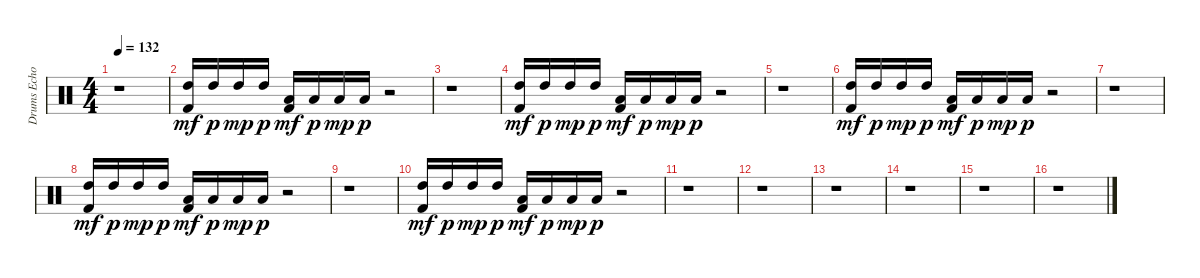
\track ("Drums Echo" "Drums Echo") {instrument percussion}
\staff {score}
\articulation defaults
\ts (4 4)
\tempo 132
\clef neutral
\ks c
r.1{dy mf} |
("High Tom (hit)" "Kick (hit) 2").16 "High Tom (hit)".16{dy p} "High Tom (hit)".16{dy mp} "High Tom (hit)".16{dy p} ("Low Tom (hit)" "Kick (hit) 2").16{dy mf} "Low Tom (hit)".16{dy p} "Low Tom (hit)".16{dy mp} "Low Tom (hit)".16{dy p} r.2 |
r.1 |
("High Tom (hit)" "Kick (hit) 2").16{dy mf} "High Tom (hit)".16{dy p} "High Tom (hit)".16{dy mp} "High Tom (hit)".16{dy p} ("Low Tom (hit)" "Kick (hit) 2").16{dy mf} "Low Tom (hit)".16{dy p} "Low Tom (hit)".16{dy mp} "Low Tom (hit)".16{dy p} r.2 |
r.1 |
("High Tom (hit)" "Kick (hit) 2").16{dy mf} "High Tom (hit)".16{dy p} "High Tom (hit)".16{dy mp} "High Tom (hit)".16{dy p} ("Low Tom (hit)" "Kick (hit) 2").16{dy mf} "Low Tom (hit)".16{dy p} "Low Tom (hit)".16{dy mp} "Low Tom (hit)".16{dy p} r.2 |
r.1 |
("High Tom (hit)" "Kick (hit) 2").16{dy mf} "High Tom (hit)".16{dy p} "High Tom (hit)".16{dy mp} "High Tom (hit)".16{dy p} ("Low Tom (hit)" "Kick (hit) 2").16{dy mf} "Low Tom (hit)".16{dy p} "Low Tom (hit)".16{dy mp} "Low Tom (hit)".16{dy p} r.2 |
r.1 |
("High Tom (hit)" "Kick (hit) 2").16{dy mf} "High Tom (hit)".16{dy p} "High Tom (hit)".16{dy mp} "High Tom (hit)".16{dy p} ("Low Tom (hit)" "Kick (hit) 2").16{dy mf} "Low Tom (hit)".16{dy p} "Low Tom (hit)".16{dy mp} "Low Tom (hit)".16{dy p} r.2 |
r.1 |
r.1 |
r.1 |
r.1 |
r.1 |
r.1
